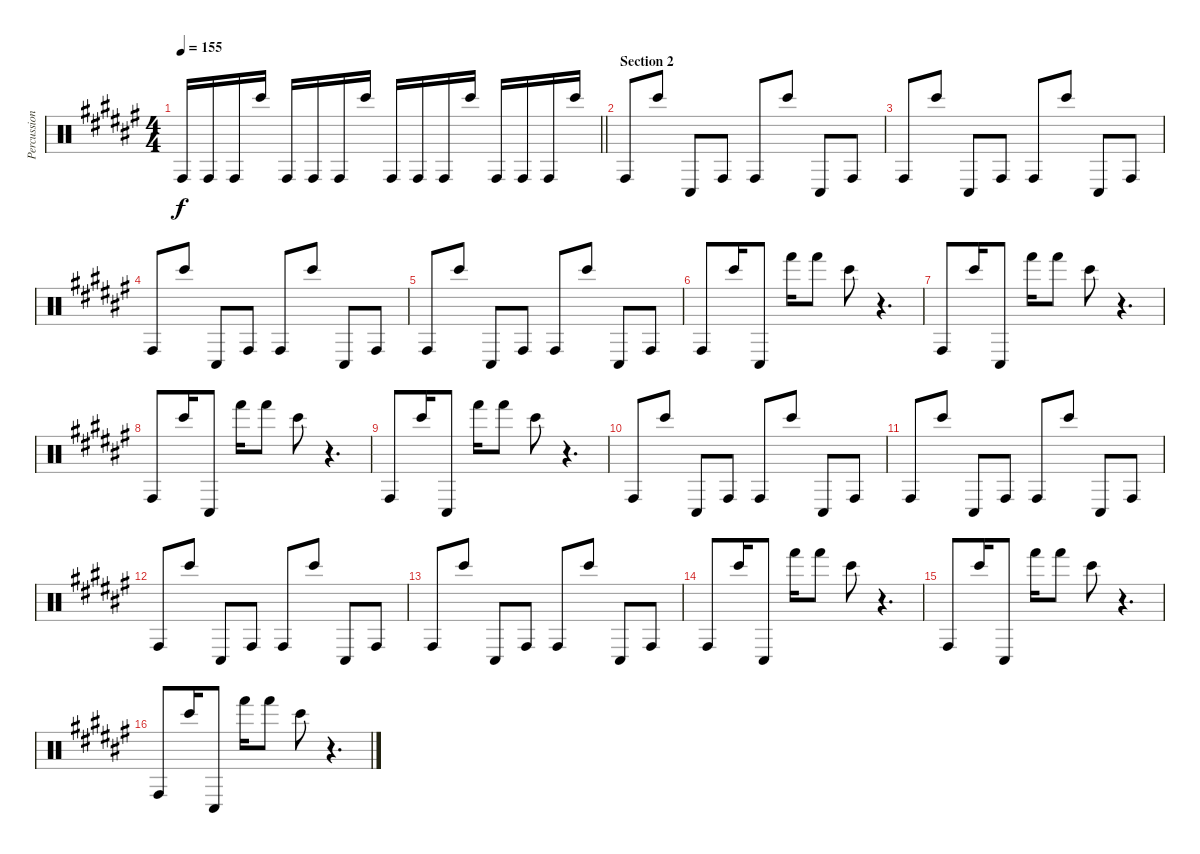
\track ("Percussion" "Percussion") {instrument percussion}
\staff {score}
\articulation defaults
\ts (4 4)
\tempo 155
\clef neutral
\barLineRight lightlight
\ks f# "Conga high (hit)".16{dy f} "Conga high (hit)".16 "Conga high (hit)".16 "Bongo High (hit)".16 "Conga high (hit)".16 "Conga high (hit)".16 "Conga high (hit)".16 "Bongo High (hit)".16 "Conga high (hit)".16 "Conga high (hit)".16 "Conga high (hit)".16 "Bongo High (hit)".16 "Conga high (hit)".16 "Conga high (hit)".16 "Conga high (hit)".16 "Bongo High (hit)".16
|
\section ("" "Section 2")
"Conga high (hit)".8 "Bongo High (hit)".8 "Conga low (hit)".8 "Conga high (hit)".8 "Conga high (hit)".8 "Bongo High (hit)".8 "Conga low (hit)".8 "Conga high (hit)".8 |
"Conga high (hit)".8 "Bongo High (hit)".8 "Conga low (hit)".8 "Conga high (hit)".8 "Conga high (hit)".8 "Bongo High (hit)".8 "Conga low (hit)".8 "Conga high (hit)".8 |
"Conga high (hit)".8 "Bongo High (hit)".8 "Conga low (hit)".8 "Conga high (hit)".8 "Conga high (hit)".8 "Bongo High (hit)".8 "Conga low (hit)".8 "Conga high (hit)".8 |
"Conga high (hit)".8 "Bongo High (hit)".8 "Conga low (hit)".8 "Conga high (hit)".8 "Conga high (hit)".8 "Bongo High (hit)".8 "Conga low (hit)".8 "Conga high (hit)".8 |
"Conga high (hit)".8 "Bongo High (hit)".16 "Conga low (hit)".8 "Hand (hit)".16 "Hand (hit)".8 "Bongo High (hit)".8 r.4{d} |
"Conga high (hit)".8 "Bongo High (hit)".16 "Conga low (hit)".8 "Hand (hit)".16 "Hand (hit)".8 "Bongo High (hit)".8 r.4{d} |
"Conga high (hit)".8 "Bongo High (hit)".16 "Conga low (hit)".8 "Hand (hit)".16 "Hand (hit)".8 "Bongo High (hit)".8 r.4{d} |
"Conga high (hit)".8 "Bongo High (hit)".16 "Conga low (hit)".8 "Hand (hit)".16 "Hand (hit)".8 "Bongo High (hit)".8 r.4{d} |
"Conga high (hit)".8 "Bongo High (hit)".8 "Conga low (hit)".8 "Conga high (hit)".8 "Conga high (hit)".8 "Bongo High (hit)".8 "Conga low (hit)".8 "Conga high (hit)".8 |
"Conga high (hit)".8 "Bongo High (hit)".8 "Conga low (hit)".8 "Conga high (hit)".8 "Conga high (hit)".8 "Bongo High (hit)".8 "Conga low (hit)".8 "Conga high (hit)".8 |
"Conga high (hit)".8 "Bongo High (hit)".8 "Conga low (hit)".8 "Conga high (hit)".8 "Conga high (hit)".8 "Bongo High (hit)".8 "Conga low (hit)".8 "Conga high (hit)".8 |
"Conga high (hit)".8 "Bongo High (hit)".8 "Conga low (hit)".8 "Conga high (hit)".8 "Conga high (hit)".8 "Bongo High (hit)".8 "Conga low (hit)".8 "Conga high (hit)".8 |
"Conga high (hit)".8 "Bongo High (hit)".16 "Conga low (hit)".8 "Hand (hit)".16 "Hand (hit)".8 "Bongo High (hit)".8 r.4{d} |
"Conga high (hit)".8 "Bongo High (hit)".16 "Conga low (hit)".8 "Hand (hit)".16 "Hand (hit)".8 "Bongo High (hit)".8 r.4{d} |
"Conga high (hit)".8 "Bongo High (hit)".16 "Conga low (hit)".8 "Hand (hit)".16 "Hand (hit)".8 "Bongo High (hit)".8 r.4{d}
